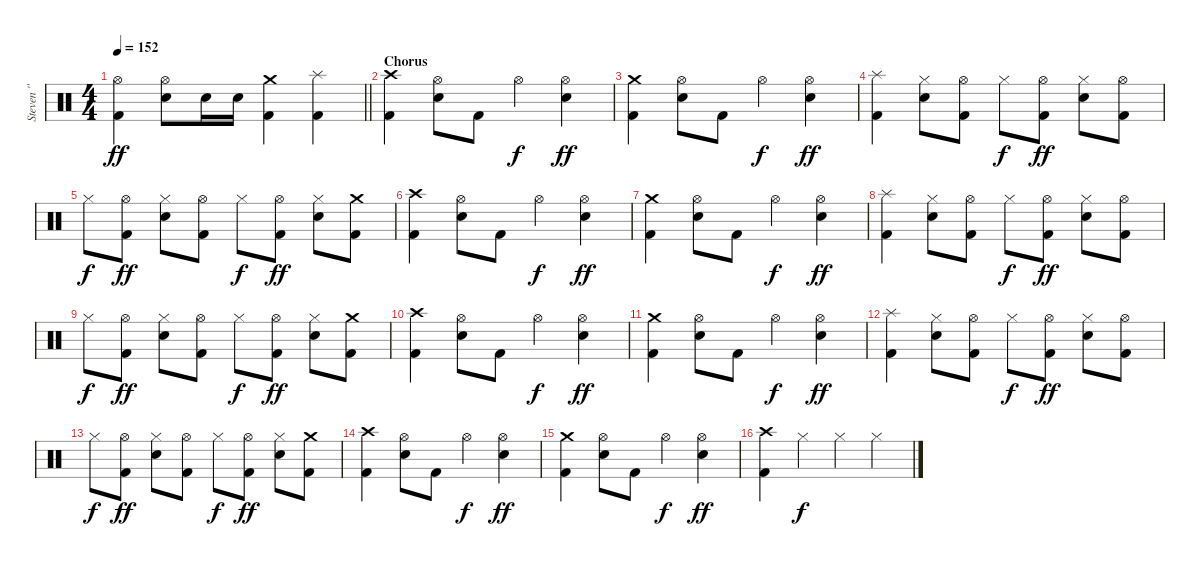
\track ("Steven '' Popcorn '' Adler" "Steven '' ") {instrument percussion}
\staff {score}
\articulation defaults
\ts (4 4)
\tempo 152
\clef neutral
\barLineRight lightlight
\ks c
("Hi-Hat (open)" "Kick (hit) 2").4{dy ff} ("Hi-Hat (open)" "Snare (hit) 2").8 "Snare (hit) 2".16 "Snare (hit) 2".16 ("Crash medium (hit)" "Kick (hit) 2").4 ("Splash (hit)" "Kick (hit) 2").4 |
\section ("" "Chorus")
("Crash high (hit)" "Kick (hit) 2").4 ("Hi-Hat (open)" "Snare (hit) 2").8 "Kick (hit) 2".8 "Hi-Hat (open)".4{dy f} ("Hi-Hat (open)" "Snare (hit) 2").4{dy ff} |
("Crash medium (hit)" "Kick (hit) 2").4 ("Hi-Hat (open)" "Snare (hit) 2").8 "Kick (hit) 2".8 "Hi-Hat (open)".4{dy f} ("Hi-Hat (open)" "Snare (hit) 2").4{dy ff} |
("Splash (hit)" "Kick (hit) 2").4 ("Hi-Hat (closed)" "Snare (hit) 2").8 ("Hi-Hat (open)" "Kick (hit) 2").8 "Hi-Hat (closed)".8{dy f} ("Hi-Hat (open)" "Kick (hit) 2").8{dy ff} ("Hi-Hat (closed)" "Snare (hit) 2").8 ("Hi-Hat (open)" "Kick (hit) 2").8 |
"Hi-Hat (closed)".8{dy f} ("Hi-Hat (open)" "Kick (hit) 2").8{dy ff} ("Hi-Hat (closed)" "Snare (hit) 2").8 ("Hi-Hat (open)" "Kick (hit) 2").8 "Hi-Hat (closed)".8{dy f} ("Hi-Hat (open)" "Kick (hit) 2").8{dy ff} ("Hi-Hat (closed)" "Snare (hit) 2").8 ("Crash medium (hit)" "Kick (hit) 2").8 |
("Crash high (hit)" "Kick (hit) 2").4 ("Hi-Hat (open)" "Snare (hit) 2").8 "Kick (hit) 2".8 "Hi-Hat (open)".4{dy f} ("Hi-Hat (open)" "Snare (hit) 2").4{dy ff} |
("Crash medium (hit)" "Kick (hit) 2").4 ("Hi-Hat (open)" "Snare (hit) 2").8 "Kick (hit) 2".8 "Hi-Hat (open)".4{dy f} ("Hi-Hat (open)" "Snare (hit) 2").4{dy ff} |
("Splash (hit)" "Kick (hit) 2").4 ("Hi-Hat (closed)" "Snare (hit) 2").8 ("Hi-Hat (open)" "Kick (hit) 2").8 "Hi-Hat (closed)".8{dy f} ("Hi-Hat (open)" "Kick (hit) 2").8{dy ff} ("Hi-Hat (closed)" "Snare (hit) 2").8 ("Hi-Hat (open)" "Kick (hit) 2").8 |
"Hi-Hat (closed)".8{dy f} ("Hi-Hat (open)" "Kick (hit) 2").8{dy ff} ("Hi-Hat (closed)" "Snare (hit) 2").8 ("Hi-Hat (open)" "Kick (hit) 2").8 "Hi-Hat (closed)".8{dy f} ("Hi-Hat (open)" "Kick (hit) 2").8{dy ff} ("Hi-Hat (closed)" "Snare (hit) 2").8 ("Crash medium (hit)" "Kick (hit) 2").8 |
("Crash high (hit)" "Kick (hit) 2").4 ("Hi-Hat (open)" "Snare (hit) 2").8 "Kick (hit) 2".8 "Hi-Hat (open)".4{dy f} ("Hi-Hat (open)" "Snare (hit) 2").4{dy ff} |
("Crash medium (hit)" "Kick (hit) 2").4 ("Hi-Hat (open)" "Snare (hit) 2").8 "Kick (hit) 2".8 "Hi-Hat (open)".4{dy f} ("Hi-Hat (open)" "Snare (hit) 2").4{dy ff} |
("Splash (hit)" "Kick (hit) 2").4 ("Hi-Hat (closed)" "Snare (hit) 2").8 ("Hi-Hat (open)" "Kick (hit) 2").8 "Hi-Hat (closed)".8{dy f} ("Hi-Hat (open)" "Kick (hit) 2").8{dy ff} ("Hi-Hat (closed)" "Snare (hit) 2").8 ("Hi-Hat (open)" "Kick (hit) 2").8 |
"Hi-Hat (closed)".8{dy f} ("Hi-Hat (open)" "Kick (hit) 2").8{dy ff} ("Hi-Hat (closed)" "Snare (hit) 2").8 ("Hi-Hat (open)" "Kick (hit) 2").8 "Hi-Hat (closed)".8{dy f} ("Hi-Hat (open)" "Kick (hit) 2").8{dy ff} ("Hi-Hat (closed)" "Snare (hit) 2").8 ("Crash medium (hit)" "Kick (hit) 2").8 |
("Crash high (hit)" "Kick (hit) 2").4 ("Hi-Hat (open)" "Snare (hit) 2").8 "Kick (hit) 2".8 "Hi-Hat (open)".4{dy f} ("Hi-Hat (open)" "Snare (hit) 2").4{dy ff} |
("Crash medium (hit)" "Kick (hit) 2").4 ("Hi-Hat (open)" "Snare (hit) 2").8 "Kick (hit) 2".8 "Hi-Hat (open)".4{dy f} ("Hi-Hat (open)" "Snare (hit) 2").4{dy ff} |
("Crash high (hit)" "Kick (hit) 2").4 "Hi-Hat (closed)".4{dy f} "Hi-Hat (closed)".4 "Hi-Hat (closed)".4
